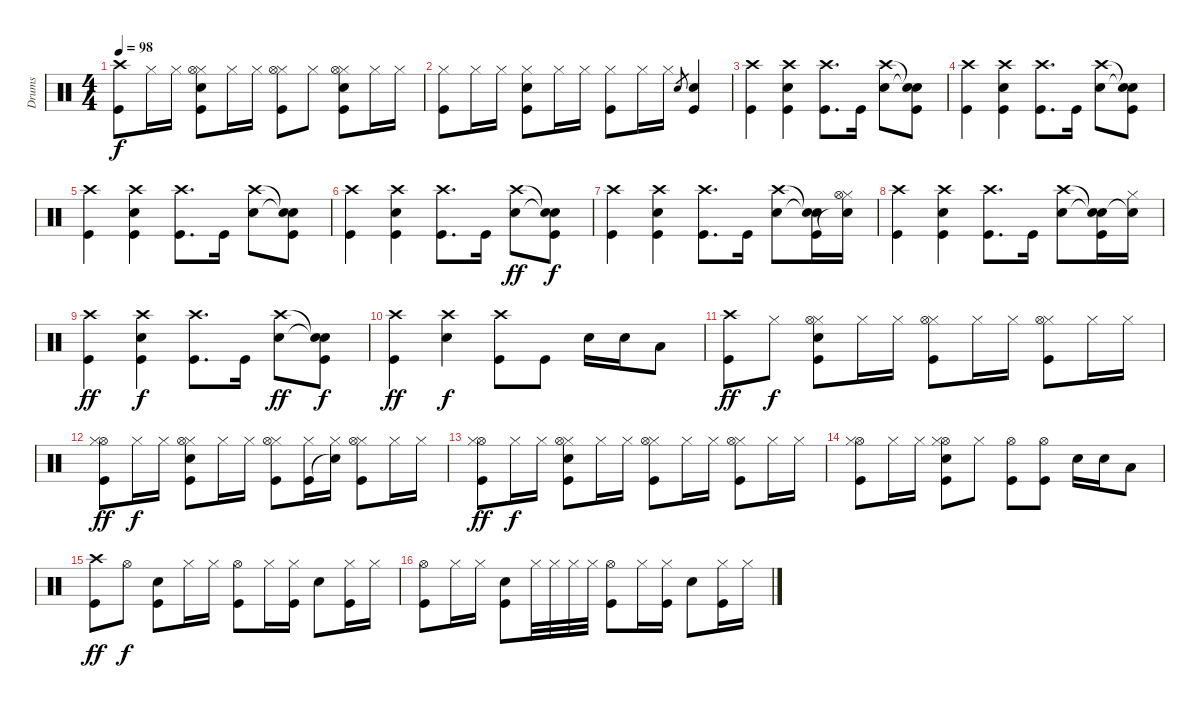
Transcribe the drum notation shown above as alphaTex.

\track ("Drums" "Drums") {instrument percussion}
\staff {score}
\articulation defaults
\ts (4 4)
\tempo 98
\clef neutral
\ks c
("Crash high (hit)" "Kick (hit)").8{dy f} "Hi-Hat (closed)".16 "Hi-Hat (closed)".16 ("Hi-Hat (closed)" "Electric Snare (hit)" "Kick (hit)" "Hi-Hat (open)").8 "Hi-Hat (closed)".16 "Hi-Hat (closed)".16 ("Hi-Hat (closed)" "Kick (hit)" "Hi-Hat (open)").8 "Hi-Hat (closed)".8 ("Hi-Hat (closed)" "Kick (hit)" "Electric Snare (hit)" "Hi-Hat (open)").8 "Hi-Hat (closed)".16 "Hi-Hat (closed)".16 |
("Hi-Hat (closed)" "Kick (hit)").8 "Hi-Hat (closed)".16 "Hi-Hat (closed)".16 ("Hi-Hat (closed)" "Electric Snare (hit)" "Kick (hit)").8 "Hi-Hat (closed)".16 "Hi-Hat (closed)".16 ("Hi-Hat (closed)" "Kick (hit)").8 "Hi-Hat (closed)".16 "Hi-Hat (closed)".16 "Electric Snare (hit)".8{gr} ("Electric Snare (hit)" "Kick (hit)").4 |
("Crash high (hit)" "Kick (hit)").4 ("Crash high (hit)" "Electric Snare (hit)" "Kick (hit)").4 ("Crash high (hit)" "Kick (hit)").8{d} "Kick (hit)".16 ("Crash high (hit)" "Electric Snare (hit)").8 ("Snare (hit)"{t} "Snare (hit)"{t} "Kick (hit)").8 |
("Crash high (hit)" "Kick (hit)").4 ("Crash high (hit)" "Electric Snare (hit)" "Kick (hit)").4 ("Crash high (hit)" "Kick (hit)").8{d} "Kick (hit)".16 ("Crash high (hit)" "Electric Snare (hit)").8 ("Snare (hit)"{t} "Snare (hit)"{t} "Kick (hit)").8 |
("Crash high (hit)" "Kick (hit)").4 ("Crash high (hit)" "Electric Snare (hit)" "Kick (hit)").4 ("Crash high (hit)" "Kick (hit)").8{d} "Kick (hit)".16 ("Crash high (hit)" "Electric Snare (hit)").8 ("Snare (hit)"{t} "Snare (hit)"{t} "Kick (hit)").8 |
("Crash high (hit)" "Kick (hit)").4 ("Crash high (hit)" "Electric Snare (hit)" "Kick (hit)").4 ("Crash high (hit)" "Kick (hit)").8{d} "Kick (hit)".16 ("Crash high (hit)" "Electric Snare (hit)").8{dy ff} ("Snare (hit)"{t} "Snare (hit)"{t} "Kick (hit)").8{dy f} |
("Crash high (hit)" "Kick (hit)").4 ("Crash high (hit)" "Electric Snare (hit)" "Kick (hit)").4 ("Crash high (hit)" "Kick (hit)").8{d} "Kick (hit)".16 ("Crash high (hit)" "Electric Snare (hit)").8 ("Snare (hit)"{t} "Snare (hit)"{t} "Kick (hit)").16 ("Hi-Hat (closed)" "Hi-Hat (open)" "Snare (hit)"{t}).16 |
("Crash high (hit)" "Kick (hit)").4 ("Crash high (hit)" "Electric Snare (hit)" "Kick (hit)").4 ("Crash high (hit)" "Kick (hit)").8{d} "Kick (hit)".16 ("Crash high (hit)" "Electric Snare (hit)").8 ("Snare (hit)"{t} "Snare (hit)"{t} "Kick (hit)").16 ("Hi-Hat (closed)" "Snare (hit)"{t}).16 |
("Crash high (hit)" "Kick (hit)").4{dy ff} ("Crash high (hit)" "Electric Snare (hit)" "Kick (hit)").4{dy f} ("Crash high (hit)" "Kick (hit)").8{d} "Kick (hit)".16 ("Crash high (hit)" "Electric Snare (hit)").8{dy ff} ("Snare (hit)"{t} "Snare (hit)"{t} "Kick (hit)").8{dy f} |
("Crash high (hit)" "Kick (hit)").4{dy ff} ("Crash high (hit)" "Electric Snare (hit)").4{dy f} ("Crash high (hit)" "Kick (hit)").8 "Kick (hit)".8 "Electric Snare (hit)".16 "Electric Snare (hit)".16 "Low Tom (hit)".8 |
("Crash high (hit)" "Kick (hit)").8{dy ff} "Hi-Hat (closed)".8{dy f} ("Hi-Hat (closed)" "Kick (hit)" "Hi-Hat (open)" "Electric Snare (hit)").8 "Hi-Hat (closed)".16 "Hi-Hat (closed)".16 ("Hi-Hat (closed)" "Kick (hit)" "Hi-Hat (open)").8 "Hi-Hat (closed)".16 "Hi-Hat (closed)".16 ("Hi-Hat (closed)" "Kick (hit)" "Hi-Hat (open)").8 "Hi-Hat (closed)".16 "Hi-Hat (closed)".16 |
("Hi-Hat (open)" "Hi-Hat (closed)" "Kick (hit)").8{dy ff} "Hi-Hat (closed)".16{dy f} "Hi-Hat (closed)".16 ("Hi-Hat (closed)" "Kick (hit)" "Hi-Hat (open)" "Electric Snare (hit)").8 "Hi-Hat (closed)".16 "Hi-Hat (closed)".16 ("Hi-Hat (closed)" "Kick (hit)" "Hi-Hat (open)").8 ("Hi-Hat (closed)" "Kick (hit)").16 ("Hi-Hat (closed)" "Snare (hit)"{t}).16 ("Hi-Hat (closed)" "Kick (hit)" "Hi-Hat (open)").8 "Hi-Hat (closed)".16 "Hi-Hat (closed)".16 |
("Hi-Hat (open)" "Hi-Hat (closed)" "Kick (hit)").8{dy ff} "Hi-Hat (closed)".16{dy f} "Hi-Hat (closed)".16 ("Hi-Hat (closed)" "Kick (hit)" "Hi-Hat (open)" "Electric Snare (hit)").8 "Hi-Hat (closed)".16 "Hi-Hat (closed)".16 ("Hi-Hat (closed)" "Kick (hit)" "Hi-Hat (open)").8 "Hi-Hat (closed)".16 "Hi-Hat (closed)".16 ("Hi-Hat (closed)" "Kick (hit)" "Hi-Hat (open)").8 "Hi-Hat (closed)".16 "Hi-Hat (closed)".16 |
("Hi-Hat (open)" "Hi-Hat (closed)" "Kick (hit)").8 "Hi-Hat (closed)".16 "Hi-Hat (closed)".16 ("Hi-Hat (open)" "Hi-Hat (closed)" "Kick (hit)" "Electric Snare (hit)").8 "Hi-Hat (closed)".8 ("Hi-Hat (open)" "Kick (hit)").8 ("Hi-Hat (open)" "Kick (hit)").8 "Electric Snare (hit)".16 "Electric Snare (hit)".16 "Low Tom (hit)".8 |
("Crash high (hit)" "Kick (hit)").8{dy ff} "Hi-Hat (open)".8{dy f} ("Kick (hit)" "Electric Snare (hit)").8 "Hi-Hat (closed)".16 "Hi-Hat (closed)".16 ("Hi-Hat (open)" "Kick (hit)").8 "Hi-Hat (closed)".16 ("Hi-Hat (closed)" "Kick (hit)").16 "Electric Snare (hit)".8 ("Hi-Hat (closed)" "Kick (hit)").16 "Hi-Hat (closed)".16 |
("Hi-Hat (open)" "Kick (hit)").8 "Hi-Hat (closed)".16 "Hi-Hat (closed)".16 ("Kick (hit)" "Electric Snare (hit)").8 "Hi-Hat (closed)".32 "Hi-Hat (closed)".32 "Hi-Hat (closed)".32 "Hi-Hat (closed)".32 ("Hi-Hat (open)" "Kick (hit)").8 "Hi-Hat (closed)".16 ("Hi-Hat (closed)" "Kick (hit)").16 "Electric Snare (hit)".8 ("Hi-Hat (closed)" "Kick (hit)").16 "Hi-Hat (closed)".16
